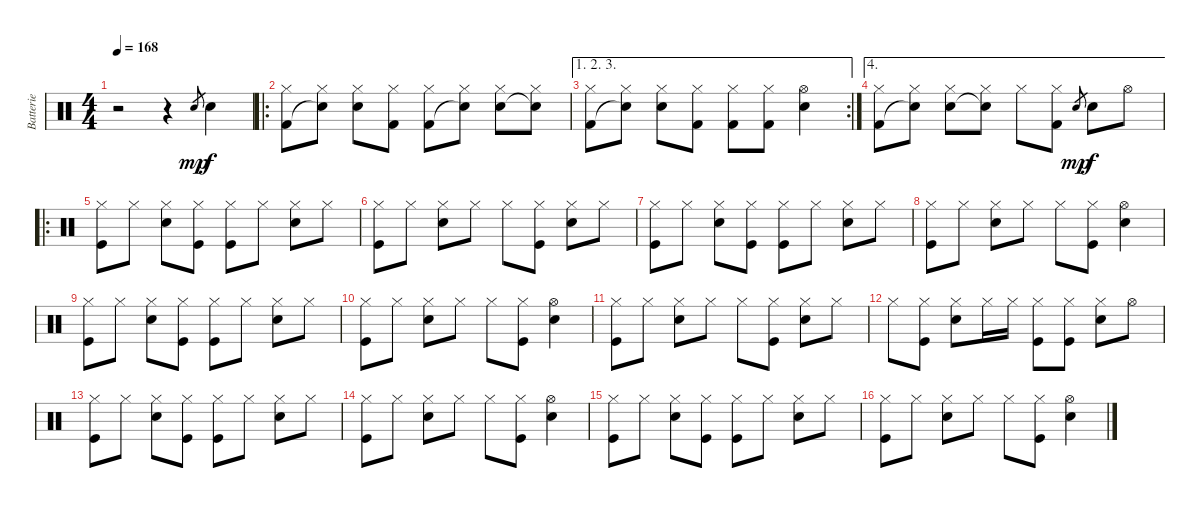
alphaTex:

\track ("Batterie" "Batterie") {instrument percussion}
\staff {score}
\articulation defaults
\ts (4 4)
\tempo 168
\clef neutral
\ks c
r.2{dy mp} r.4 "Snare (hit) 2".8{gr} "Snare (hit) 2".4{dy f} |
\ro
("Hi-Hat (closed)" "Kick (hit) 2").8 ("Hi-Hat (closed)" "Snare (hit)"{t}).8 ("Hi-Hat (closed)" "Snare (hit) 2").8 ("Hi-Hat (closed)" "Kick (hit) 2").8 ("Hi-Hat (closed)" "Kick (hit) 2").8 ("Hi-Hat (closed)" "Snare (hit)"{t}).8 ("Hi-Hat (closed)" "Snare (hit) 2").8 ("Hi-Hat (closed)" "Snare (hit)"{t}).8 |
\ae (1 2 3)
\rc 2
("Hi-Hat (closed)" "Kick (hit) 2").8 ("Hi-Hat (closed)" "Snare (hit)"{t}).8 ("Hi-Hat (closed)" "Snare (hit) 2").8 ("Hi-Hat (closed)" "Kick (hit) 2").8 ("Hi-Hat (closed)" "Kick (hit) 2").8 ("Hi-Hat (closed)" "Kick (hit) 2").8 ("Hi-Hat (open)" "Snare (hit) 2").4 |
\ae 4
("Hi-Hat (closed)" "Kick (hit) 2").8 ("Hi-Hat (closed)" "Snare (hit)"{t}).8 ("Hi-Hat (closed)" "Snare (hit) 2").8 ("Hi-Hat (closed)" "Snare (hit)"{t}).8 "Hi-Hat (closed)".8 ("Hi-Hat (closed)" "Kick (hit) 2").8 "Snare (hit) 2".8{gr dy mp} "Snare (hit) 2".8{dy f} "Hi-Hat (open)".8 |
\ro
("Hi-Hat (closed)" "Kick (hit)").8 "Hi-Hat (closed)".8 ("Hi-Hat (closed)" "Snare (hit) 2").8 ("Hi-Hat (closed)" "Kick (hit)").8 ("Hi-Hat (closed)" "Kick (hit)").8 "Hi-Hat (closed)".8 ("Hi-Hat (closed)" "Snare (hit) 2").8 "Hi-Hat (closed)".8 |
("Hi-Hat (closed)" "Kick (hit)").8 "Hi-Hat (closed)".8 ("Hi-Hat (closed)" "Snare (hit) 2").8 "Hi-Hat (closed)".8 "Hi-Hat (closed)".8 ("Hi-Hat (closed)" "Kick (hit)").8 ("Hi-Hat (closed)" "Snare (hit) 2").8 "Hi-Hat (closed)".8 |
("Hi-Hat (closed)" "Kick (hit)").8 "Hi-Hat (closed)".8 ("Hi-Hat (closed)" "Snare (hit) 2").8 ("Hi-Hat (closed)" "Kick (hit)").8 ("Hi-Hat (closed)" "Kick (hit)").8 "Hi-Hat (closed)".8 ("Hi-Hat (closed)" "Snare (hit) 2").8 "Hi-Hat (closed)".8 |
("Hi-Hat (closed)" "Kick (hit)").8 "Hi-Hat (closed)".8 ("Hi-Hat (closed)" "Snare (hit) 2").8 "Hi-Hat (closed)".8 "Hi-Hat (closed)".8 ("Hi-Hat (closed)" "Kick (hit)").8 ("Hi-Hat (open)" "Snare (hit) 2").4 |
("Hi-Hat (closed)" "Kick (hit)").8 "Hi-Hat (closed)".8 ("Hi-Hat (closed)" "Snare (hit) 2").8 ("Hi-Hat (closed)" "Kick (hit)").8 ("Hi-Hat (closed)" "Kick (hit)").8 "Hi-Hat (closed)".8 ("Hi-Hat (closed)" "Snare (hit) 2").8 "Hi-Hat (closed)".8 |
("Hi-Hat (closed)" "Kick (hit)").8 "Hi-Hat (closed)".8 ("Hi-Hat (closed)" "Snare (hit) 2").8 "Hi-Hat (closed)".8 "Hi-Hat (closed)".8 ("Hi-Hat (closed)" "Kick (hit)").8 ("Hi-Hat (open)" "Snare (hit) 2").4 |
("Hi-Hat (closed)" "Kick (hit)").8 "Hi-Hat (closed)".8 ("Hi-Hat (closed)" "Snare (hit) 2").8 "Hi-Hat (closed)".8 "Hi-Hat (closed)".8 ("Hi-Hat (closed)" "Kick (hit)").8 ("Hi-Hat (closed)" "Snare (hit) 2").8 "Hi-Hat (closed)".8 |
"Hi-Hat (closed)".8 ("Hi-Hat (closed)" "Kick (hit)").8 ("Hi-Hat (closed)" "Snare (hit) 2").8 "Hi-Hat (closed)".16 "Hi-Hat (closed)".16 ("Hi-Hat (closed)" "Kick (hit)").8 ("Hi-Hat (closed)" "Kick (hit)").8 ("Hi-Hat (closed)" "Snare (hit) 2").8 "Hi-Hat (open)".8 |
("Hi-Hat (closed)" "Kick (hit)").8 "Hi-Hat (closed)".8 ("Hi-Hat (closed)" "Snare (hit) 2").8 ("Hi-Hat (closed)" "Kick (hit)").8 ("Hi-Hat (closed)" "Kick (hit)").8 "Hi-Hat (closed)".8 ("Hi-Hat (closed)" "Snare (hit) 2").8 "Hi-Hat (closed)".8 |
("Hi-Hat (closed)" "Kick (hit)").8 "Hi-Hat (closed)".8 ("Hi-Hat (closed)" "Snare (hit) 2").8 "Hi-Hat (closed)".8 "Hi-Hat (closed)".8 ("Hi-Hat (closed)" "Kick (hit)").8 ("Hi-Hat (open)" "Snare (hit) 2").4 |
("Hi-Hat (closed)" "Kick (hit)").8 "Hi-Hat (closed)".8 ("Hi-Hat (closed)" "Snare (hit) 2").8 ("Hi-Hat (closed)" "Kick (hit)").8 ("Hi-Hat (closed)" "Kick (hit)").8 "Hi-Hat (closed)".8 ("Hi-Hat (closed)" "Snare (hit) 2").8 "Hi-Hat (closed)".8 |
("Hi-Hat (closed)" "Kick (hit)").8 "Hi-Hat (closed)".8 ("Hi-Hat (closed)" "Snare (hit) 2").8 "Hi-Hat (closed)".8 "Hi-Hat (closed)".8 ("Hi-Hat (closed)" "Kick (hit)").8 ("Hi-Hat (open)" "Snare (hit) 2").4
